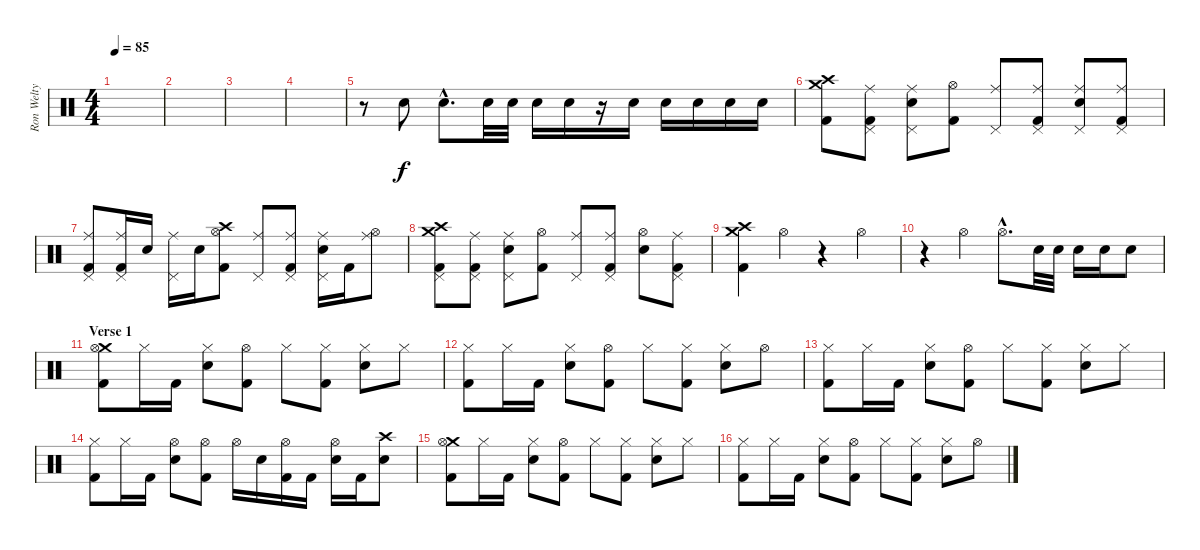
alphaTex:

\track ("Ron Welty - Drums" "Ron Welty ") {instrument percussion}
\staff {score}
\articulation defaults
\ts (4 4)
\tempo 85
\clef neutral
\ks c
|
|
|
|
r.8 "Snare (hit) 2".8 "Snare (hit) 2"{hac}.8{d} "Snare (hit) 2".32 "Snare (hit) 2".32 "Snare (hit) 2".16 "Snare (hit) 2".16 r.16 "Snare (hit) 2".16 "Snare (hit) 2".16 "Snare (hit) 2".16 "Snare (hit) 2".16 "Snare (hit) 2".16 |
("Crash medium (hit)" "Crash high (hit)" "Kick (hit) 2").8 ("Ride (middle)" "Pedal Hi-Hat (hit)" "Kick (hit) 2").8 ("Ride (middle)" "Pedal Hi-Hat (hit)" "Snare (hit) 2").8 ("Hi-Hat (open)" "Kick (hit) 2").8 ("Ride (middle)" "Pedal Hi-Hat (hit)").8 ("Ride (middle)" "Pedal Hi-Hat (hit)" "Kick (hit) 2").8 ("Ride (middle)" "Pedal Hi-Hat (hit)" "Snare (hit) 2").8 ("Ride (middle)" "Pedal Hi-Hat (hit)" "Kick (hit) 2").8 |
("Ride (middle)" "Pedal Hi-Hat (hit)" "Kick (hit) 2").8 ("Ride (middle)" "Pedal Hi-Hat (hit)" "Kick (hit) 2").16 "Snare (hit) 2".16 ("Ride (middle)" "Pedal Hi-Hat (hit)").16 "Snare (hit) 2".16 ("Crash high (hit)" "Hi-Hat (open)" "Kick (hit) 2").8 ("Ride (middle)" "Pedal Hi-Hat (hit)").8 ("Ride (middle)" "Pedal Hi-Hat (hit)" "Kick (hit) 2").8 ("Ride (middle)" "Pedal Hi-Hat (hit)" "Snare (hit) 2").16 "Kick (hit) 2".16 ("Ride (middle)" "Hi-Hat (open)").8 |
("Crash medium (hit)" "Crash high (hit)" "Pedal Hi-Hat (hit)" "Kick (hit) 2").8 ("Ride (middle)" "Pedal Hi-Hat (hit)" "Kick (hit) 2").8 ("Ride (middle)" "Pedal Hi-Hat (hit)" "Snare (hit) 2").8 ("Hi-Hat (open)" "Kick (hit) 2").8 ("Ride (middle)" "Pedal Hi-Hat (hit)").8 ("Ride (middle)" "Pedal Hi-Hat (hit)" "Kick (hit) 2").8 ("Hi-Hat (open)" "Snare (hit) 2").8 ("Ride (middle)" "Pedal Hi-Hat (hit)" "Kick (hit) 2").8 |
("Crash high (hit)" "Crash medium (hit)" "Kick (hit) 2").4 "Hi-Hat (open)".4 r.4 "Hi-Hat (open)".4 |
r.4 "Hi-Hat (open)".4 "Hi-Hat (open)"{hac}.8{d} "Snare (hit) 2".32 "Snare (hit) 2".32 "Snare (hit) 2".16 "Snare (hit) 2".16 "Snare (hit) 2".8 |
\section ("" "Verse 1")
("Crash medium (hit)" "Hi-Hat (open)" "Kick (hit) 2").8 "Hi-Hat (closed)".16 "Kick (hit) 2".16 ("Hi-Hat (closed)" "Snare (hit) 2").8 ("Hi-Hat (open)" "Kick (hit) 2").8 "Hi-Hat (closed)".8 ("Hi-Hat (closed)" "Kick (hit) 2").8 ("Hi-Hat (closed)" "Snare (hit) 2").8 "Hi-Hat (closed)".8 |
("Hi-Hat (closed)" "Kick (hit) 2").8 "Hi-Hat (closed)".16 "Kick (hit) 2".16 ("Hi-Hat (closed)" "Snare (hit) 2").8 ("Hi-Hat (open)" "Kick (hit) 2").8 "Hi-Hat (closed)".8 ("Hi-Hat (closed)" "Kick (hit) 2").8 ("Hi-Hat (closed)" "Snare (hit) 2").8 "Hi-Hat (open)".8 |
("Hi-Hat (closed)" "Kick (hit) 2").8 "Hi-Hat (closed)".16 "Kick (hit) 2".16 ("Hi-Hat (closed)" "Snare (hit) 2").8 ("Hi-Hat (open)" "Kick (hit) 2").8 "Hi-Hat (closed)".8 ("Hi-Hat (closed)" "Kick (hit) 2").8 ("Hi-Hat (closed)" "Snare (hit) 2").8 "Hi-Hat (closed)".8 |
("Hi-Hat (closed)" "Kick (hit) 2").8 "Hi-Hat (closed)".16 "Kick (hit) 2".16 ("Hi-Hat (open)" "Snare (hit) 2").8 ("Hi-Hat (open)" "Kick (hit) 2").8 "Hi-Hat (open)".16 "Snare (hit) 2".16 ("Hi-Hat (open)" "Kick (hit) 2").16 "Kick (hit) 2".16 ("Hi-Hat (open)" "Snare (hit) 2").16 "Kick (hit) 2".16 ("Crash high (hit)" "Snare (hit) 2").8 |
("Crash medium (hit)" "Hi-Hat (open)" "Kick (hit) 2").8 "Hi-Hat (closed)".16 "Kick (hit) 2".16 ("Hi-Hat (closed)" "Snare (hit) 2").8 ("Hi-Hat (open)" "Kick (hit) 2").8 "Hi-Hat (closed)".8 ("Hi-Hat (closed)" "Kick (hit) 2").8 ("Hi-Hat (closed)" "Snare (hit) 2").8 "Hi-Hat (closed)".8 |
("Hi-Hat (closed)" "Kick (hit) 2").8 "Hi-Hat (closed)".16 "Kick (hit) 2".16 ("Hi-Hat (closed)" "Snare (hit) 2").8 ("Hi-Hat (open)" "Kick (hit) 2").8 "Hi-Hat (closed)".8 ("Hi-Hat (closed)" "Kick (hit) 2").8 ("Hi-Hat (closed)" "Snare (hit) 2").8 "Hi-Hat (open)".8
